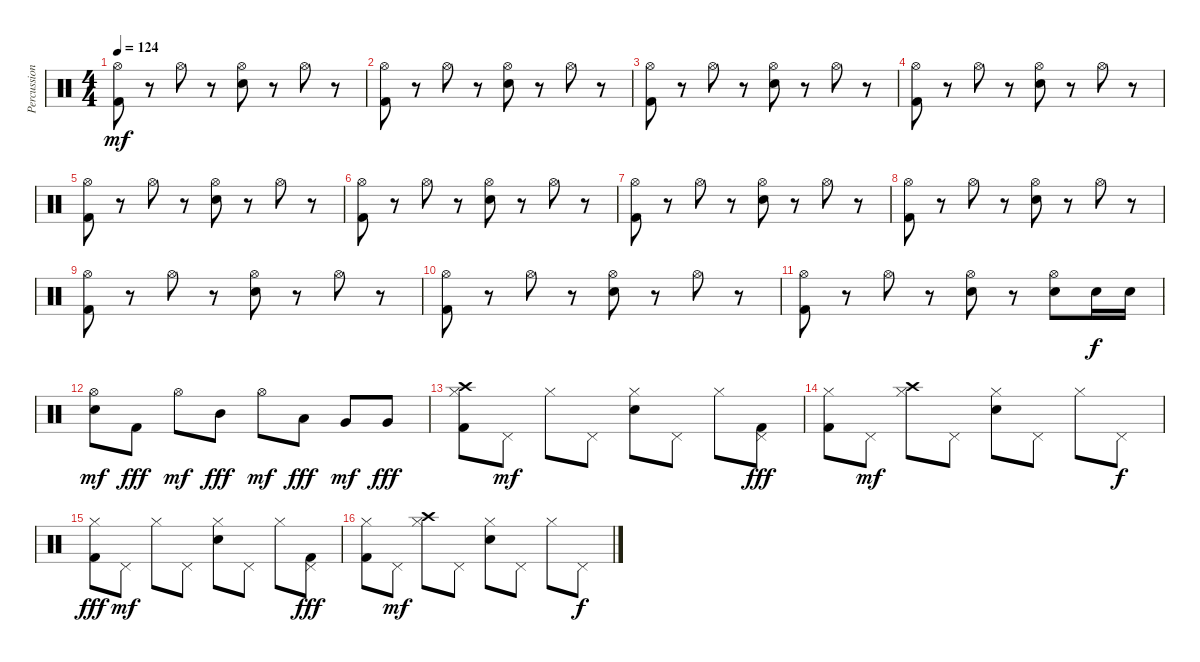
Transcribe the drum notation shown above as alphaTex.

\track ("Percussion" "Percussion") {instrument percussion}
\staff {score}
\articulation defaults
\ts (4 4)
\tempo 124
\clef neutral
\ks c
("Kick (hit) 2" "Hi-Hat (open)").8{dy mf} r.8 "Hi-Hat (open)".8 r.8 ("Electric Snare (hit)" "Hi-Hat (open)").8 r.8 "Hi-Hat (open)".8 r.8 |
("Kick (hit) 2" "Hi-Hat (open)").8 r.8 "Hi-Hat (open)".8 r.8 ("Electric Snare (hit)" "Hi-Hat (open)").8 r.8 "Hi-Hat (open)".8 r.8 |
("Kick (hit) 2" "Hi-Hat (open)").8 r.8 "Hi-Hat (open)".8 r.8 ("Electric Snare (hit)" "Hi-Hat (open)").8 r.8 "Hi-Hat (open)".8 r.8 |
("Kick (hit) 2" "Hi-Hat (open)").8 r.8 "Hi-Hat (open)".8 r.8 ("Electric Snare (hit)" "Hi-Hat (open)").8 r.8 "Hi-Hat (open)".8 r.8 |
("Kick (hit) 2" "Hi-Hat (open)").8 r.8 "Hi-Hat (open)".8 r.8 ("Electric Snare (hit)" "Hi-Hat (open)").8 r.8 "Hi-Hat (open)".8 r.8 |
("Kick (hit) 2" "Hi-Hat (open)").8 r.8 "Hi-Hat (open)".8 r.8 ("Electric Snare (hit)" "Hi-Hat (open)").8 r.8 "Hi-Hat (open)".8 r.8 |
("Kick (hit) 2" "Hi-Hat (open)").8 r.8 "Hi-Hat (open)".8 r.8 ("Electric Snare (hit)" "Hi-Hat (open)").8 r.8 "Hi-Hat (open)".8 r.8 |
("Kick (hit) 2" "Hi-Hat (open)").8 r.8 "Hi-Hat (open)".8 r.8 ("Electric Snare (hit)" "Hi-Hat (open)").8 r.8 "Hi-Hat (open)".8 r.8 |
("Kick (hit) 2" "Hi-Hat (open)").8 r.8 "Hi-Hat (open)".8 r.8 ("Electric Snare (hit)" "Hi-Hat (open)").8 r.8 "Hi-Hat (open)".8 r.8 |
("Kick (hit) 2" "Hi-Hat (open)").8 r.8 "Hi-Hat (open)".8 r.8 ("Electric Snare (hit)" "Hi-Hat (open)").8 r.8 "Hi-Hat (open)".8 r.8 |
("Kick (hit) 2" "Hi-Hat (open)").8 r.8 "Hi-Hat (open)".8 r.8 ("Electric Snare (hit)" "Hi-Hat (open)").8 r.8 ("Electric Snare (hit)" "Hi-Hat (open)").8 "Electric Snare (hit)".16{dy f} "Electric Snare (hit)".16 |
("Electric Snare (hit)" "Hi-Hat (open)").8{dy mf} "Kick (hit) 2".8{dy fff} "Hi-Hat (open)".8{dy mf} "Mid Tom (hit)".8{dy fff} "Hi-Hat (open)".8{dy mf} "Low Tom (hit)".8{dy fff} "Very Low Tom (hit)".8{dy mf} "Very Low Tom (hit)".8{dy fff} |
("Kick (hit) 2" "Hi-Hat (closed)" "Crash high (hit)").8 "Pedal Hi-Hat (hit)".8{dy mf} "Hi-Hat (closed)".8 "Pedal Hi-Hat (hit)".8 ("Electric Snare (hit)" "Hi-Hat (closed)").8 "Pedal Hi-Hat (hit)".8 "Hi-Hat (closed)".8 ("Kick (hit) 2" "Pedal Hi-Hat (hit)").8{dy fff} |
("Kick (hit) 2" "Hi-Hat (closed)").8 "Pedal Hi-Hat (hit)".8{dy mf} ("Crash high (hit)" "Hi-Hat (closed)").8 "Pedal Hi-Hat (hit)".8 ("Electric Snare (hit)" "Hi-Hat (closed)").8 "Pedal Hi-Hat (hit)".8 "Hi-Hat (closed)".8 "Pedal Hi-Hat (hit)".8{dy f} |
("Kick (hit) 2" "Hi-Hat (closed)").8{dy fff} "Pedal Hi-Hat (hit)".8{dy mf} "Hi-Hat (closed)".8 "Pedal Hi-Hat (hit)".8 ("Electric Snare (hit)" "Hi-Hat (closed)").8 "Pedal Hi-Hat (hit)".8 "Hi-Hat (closed)".8 ("Kick (hit) 2" "Pedal Hi-Hat (hit)").8{dy fff} |
("Kick (hit) 2" "Hi-Hat (closed)").8 "Pedal Hi-Hat (hit)".8{dy mf} ("Crash high (hit)" "Hi-Hat (closed)").8 "Pedal Hi-Hat (hit)".8 ("Electric Snare (hit)" "Hi-Hat (closed)").8 "Pedal Hi-Hat (hit)".8 "Hi-Hat (closed)".8 "Pedal Hi-Hat (hit)".8{dy f}
